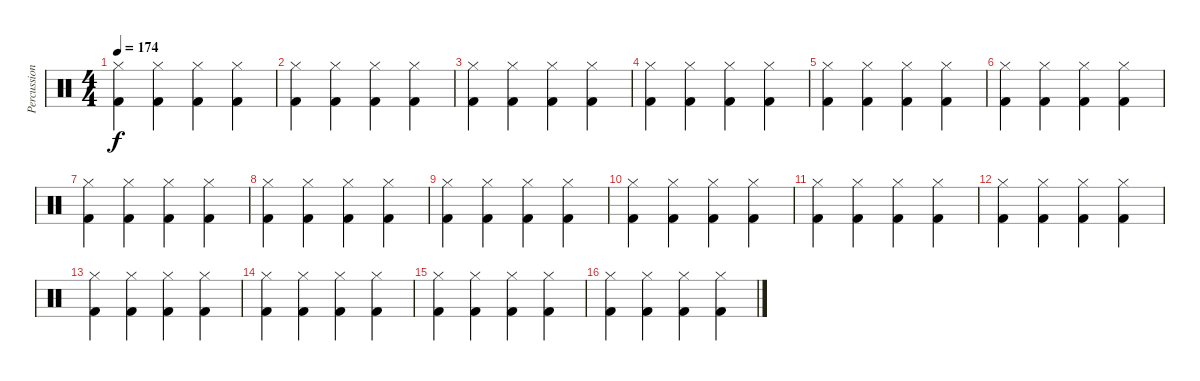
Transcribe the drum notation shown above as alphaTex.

\track ("Percussion" "Percussion") {instrument percussion}
\staff {score}
\articulation defaults
\ts (4 4)
\tempo 174
\clef neutral
\ks c
("Hi-Hat (closed)" "Kick (hit) 2").4{dy f} ("Hi-Hat (closed)" "Kick (hit) 2").4 ("Hi-Hat (closed)" "Kick (hit) 2").4 ("Hi-Hat (closed)" "Kick (hit) 2").4 |
("Hi-Hat (closed)" "Kick (hit) 2").4 ("Hi-Hat (closed)" "Kick (hit) 2").4 ("Hi-Hat (closed)" "Kick (hit) 2").4 ("Hi-Hat (closed)" "Kick (hit) 2").4 |
("Hi-Hat (closed)" "Kick (hit) 2").4 ("Hi-Hat (closed)" "Kick (hit) 2").4 ("Hi-Hat (closed)" "Kick (hit) 2").4 ("Hi-Hat (closed)" "Kick (hit) 2").4 |
("Hi-Hat (closed)" "Kick (hit) 2").4 ("Hi-Hat (closed)" "Kick (hit) 2").4 ("Hi-Hat (closed)" "Kick (hit) 2").4 ("Hi-Hat (closed)" "Kick (hit) 2").4 |
("Hi-Hat (closed)" "Kick (hit) 2").4 ("Hi-Hat (closed)" "Kick (hit) 2").4 ("Hi-Hat (closed)" "Kick (hit) 2").4 ("Hi-Hat (closed)" "Kick (hit) 2").4 |
("Hi-Hat (closed)" "Kick (hit) 2").4 ("Hi-Hat (closed)" "Kick (hit) 2").4 ("Hi-Hat (closed)" "Kick (hit) 2").4 ("Hi-Hat (closed)" "Kick (hit) 2").4 |
("Hi-Hat (closed)" "Kick (hit) 2").4 ("Hi-Hat (closed)" "Kick (hit) 2").4 ("Hi-Hat (closed)" "Kick (hit) 2").4 ("Hi-Hat (closed)" "Kick (hit) 2").4 |
("Hi-Hat (closed)" "Kick (hit) 2").4 ("Hi-Hat (closed)" "Kick (hit) 2").4 ("Hi-Hat (closed)" "Kick (hit) 2").4 ("Hi-Hat (closed)" "Kick (hit) 2").4 |
("Hi-Hat (closed)" "Kick (hit) 2").4 ("Hi-Hat (closed)" "Kick (hit) 2").4 ("Hi-Hat (closed)" "Kick (hit) 2").4 ("Hi-Hat (closed)" "Kick (hit) 2").4 |
("Hi-Hat (closed)" "Kick (hit) 2").4 ("Hi-Hat (closed)" "Kick (hit) 2").4 ("Hi-Hat (closed)" "Kick (hit) 2").4 ("Hi-Hat (closed)" "Kick (hit) 2").4 |
("Hi-Hat (closed)" "Kick (hit) 2").4 ("Hi-Hat (closed)" "Kick (hit) 2").4 ("Hi-Hat (closed)" "Kick (hit) 2").4 ("Hi-Hat (closed)" "Kick (hit) 2").4 |
("Hi-Hat (closed)" "Kick (hit) 2").4 ("Hi-Hat (closed)" "Kick (hit) 2").4 ("Hi-Hat (closed)" "Kick (hit) 2").4 ("Hi-Hat (closed)" "Kick (hit) 2").4 |
("Hi-Hat (closed)" "Kick (hit) 2").4 ("Hi-Hat (closed)" "Kick (hit) 2").4 ("Hi-Hat (closed)" "Kick (hit) 2").4 ("Hi-Hat (closed)" "Kick (hit) 2").4 |
("Hi-Hat (closed)" "Kick (hit) 2").4 ("Hi-Hat (closed)" "Kick (hit) 2").4 ("Hi-Hat (closed)" "Kick (hit) 2").4 ("Hi-Hat (closed)" "Kick (hit) 2").4 |
("Hi-Hat (closed)" "Kick (hit) 2").4 ("Hi-Hat (closed)" "Kick (hit) 2").4 ("Hi-Hat (closed)" "Kick (hit) 2").4 ("Hi-Hat (closed)" "Kick (hit) 2").4 |
("Hi-Hat (closed)" "Kick (hit) 2").4 ("Hi-Hat (closed)" "Kick (hit) 2").4 ("Hi-Hat (closed)" "Kick (hit) 2").4 ("Hi-Hat (closed)" "Kick (hit) 2").4
